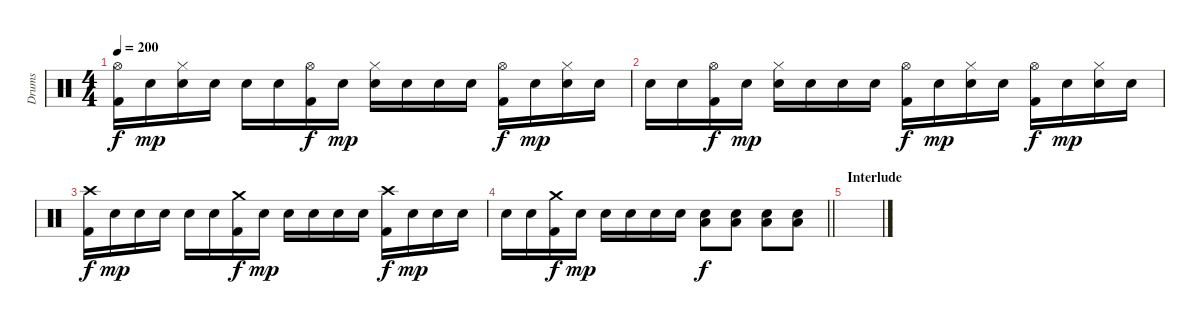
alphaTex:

\track ("Drums" "Drums") {instrument percussion}
\staff {score}
\articulation defaults
\ts (4 4)
\tempo 200
\clef neutral
\ks c
("Kick (hit) 2" "Hi-Hat (open)").16{dy f} "Electric Snare (hit)".16{dy mp} ("Hi-Hat (closed)" "Electric Snare (hit)").16 "Electric Snare (hit)".16 "Electric Snare (hit)".16 "Electric Snare (hit)".16 ("Kick (hit) 2" "Hi-Hat (open)").16{dy f} "Electric Snare (hit)".16{dy mp} ("Hi-Hat (closed)" "Electric Snare (hit)").16 "Electric Snare (hit)".16 "Electric Snare (hit)".16 "Electric Snare (hit)".16 ("Kick (hit) 2" "Hi-Hat (open)").16{dy f} "Electric Snare (hit)".16{dy mp} ("Hi-Hat (closed)" "Electric Snare (hit)").16 "Electric Snare (hit)".16 |
"Electric Snare (hit)".16 "Electric Snare (hit)".16 ("Kick (hit) 2" "Hi-Hat (open)").16{dy f} "Electric Snare (hit)".16{dy mp} ("Hi-Hat (closed)" "Electric Snare (hit)").16 "Electric Snare (hit)".16 "Electric Snare (hit)".16 "Electric Snare (hit)".16 ("Kick (hit) 2" "Hi-Hat (open)").16{dy f} "Electric Snare (hit)".16{dy mp} ("Hi-Hat (closed)" "Electric Snare (hit)").16 "Electric Snare (hit)".16 ("Kick (hit) 2" "Hi-Hat (open)").16{dy f} "Electric Snare (hit)".16{dy mp} ("Hi-Hat (closed)" "Electric Snare (hit)").16 "Electric Snare (hit)".16 |
("Kick (hit) 2" "Crash high (hit)").16{dy f} "Electric Snare (hit)".16{dy mp} "Electric Snare (hit)".16 "Electric Snare (hit)".16 "Electric Snare (hit)".16 "Electric Snare (hit)".16 ("Kick (hit) 2" "Crash medium (hit)").16{dy f} "Electric Snare (hit)".16{dy mp} "Electric Snare (hit)".16 "Electric Snare (hit)".16 "Electric Snare (hit)".16 "Electric Snare (hit)".16 ("Kick (hit) 2" "Crash high (hit)").16{dy f} "Electric Snare (hit)".16{dy mp} "Electric Snare (hit)".16 "Electric Snare (hit)".16 |
\barLineRight lightlight "Electric Snare (hit)".16 "Electric Snare (hit)".16
("Kick (hit) 2" "Crash medium (hit)").16{dy f} "Electric Snare (hit)".16{dy mp} "Electric Snare (hit)".16 "Electric Snare (hit)".16 "Electric Snare (hit)".16 "Electric Snare (hit)".16 ("Low Floor Tom (hit)" "Electric Snare (hit)").8{dy f} ("Low Floor Tom (hit)" "Electric Snare (hit)").8 ("Low Floor Tom (hit)" "Electric Snare (hit)").8 ("Low Floor Tom (hit)" "Electric Snare (hit)").8 |
\section ("" "Interlude")
